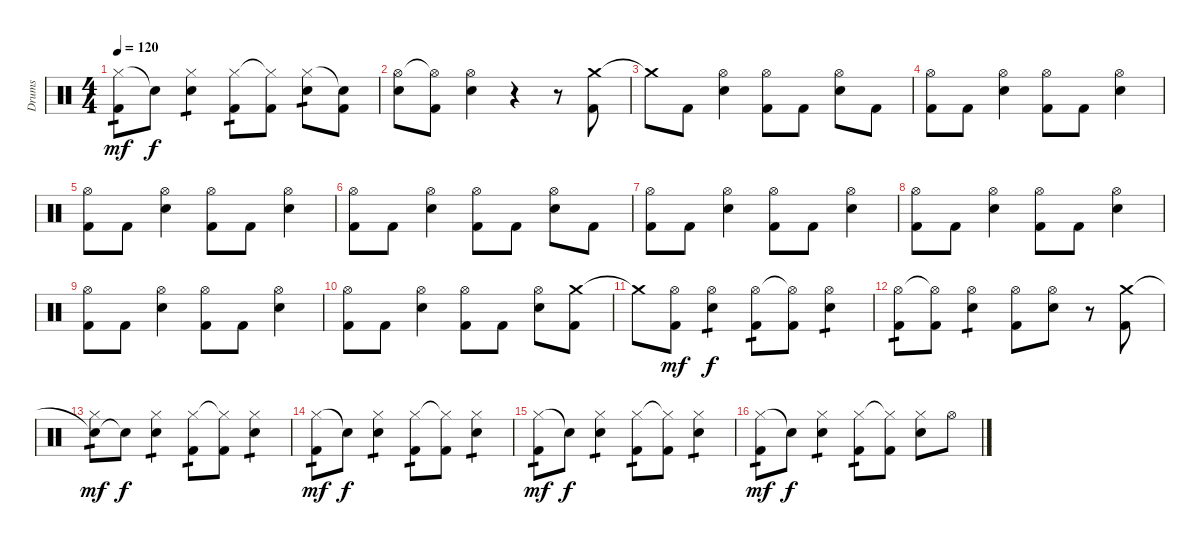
\track ("Drums" "Drums") {instrument percussion}
\staff {score}
\articulation defaults
\ts (4 4)
\tempo 120
\clef neutral
\ks c
("Hi-Hat (closed)" "Kick (hit) 2").8{tp 1 dy mf} "Snare (hit)"{t}.8{dy f} ("Hi-Hat (closed)" "Electric Snare (hit)").4{tp 1} ("Hi-Hat (closed)" "Kick (hit) 2").8{tp 1} ("Hi-Hat (closed)"{t} "Kick (hit) 2").8 ("Hi-Hat (closed)" "Electric Snare (hit)").8{tp 1} ("Snare (hit)"{t} "Kick (hit) 2").8 |
("Hi-Hat (open)" "Electric Snare (hit)").8 ("Hi-Hat (open)"{t} "Kick (hit) 2").8 ("Hi-Hat (open)" "Electric Snare (hit)").4 r.4 r.8 ("Crash medium (hit)" "Kick (hit) 2").8 |
"Crash medium (hit)"{t}.8 "Kick (hit) 2".8 ("Hi-Hat (open)" "Electric Snare (hit)").4 ("Hi-Hat (open)" "Kick (hit) 2").8 "Kick (hit) 2".8 ("Hi-Hat (open)" "Electric Snare (hit)").8 "Kick (hit) 2".8 |
("Hi-Hat (open)" "Kick (hit) 2").8 "Kick (hit) 2".8 ("Hi-Hat (open)" "Electric Snare (hit)").4 ("Hi-Hat (open)" "Kick (hit) 2").8 "Kick (hit) 2".8 ("Hi-Hat (open)" "Electric Snare (hit)").4 |
("Hi-Hat (open)" "Kick (hit) 2").8 "Kick (hit) 2".8 ("Hi-Hat (open)" "Electric Snare (hit)").4 ("Hi-Hat (open)" "Kick (hit) 2").8 "Kick (hit) 2".8 ("Hi-Hat (open)" "Electric Snare (hit)").4 |
("Hi-Hat (open)" "Kick (hit) 2").8 "Kick (hit) 2".8 ("Hi-Hat (open)" "Electric Snare (hit)").4 ("Hi-Hat (open)" "Kick (hit) 2").8 "Kick (hit) 2".8 ("Hi-Hat (open)" "Electric Snare (hit)").8 "Kick (hit) 2".8 |
("Hi-Hat (open)" "Kick (hit) 2").8 "Kick (hit) 2".8 ("Hi-Hat (open)" "Electric Snare (hit)").4 ("Hi-Hat (open)" "Kick (hit) 2").8 "Kick (hit) 2".8 ("Hi-Hat (open)" "Electric Snare (hit)").4 |
("Hi-Hat (open)" "Kick (hit) 2").8 "Kick (hit) 2".8 ("Hi-Hat (open)" "Electric Snare (hit)").4 ("Hi-Hat (open)" "Kick (hit) 2").8 "Kick (hit) 2".8 ("Hi-Hat (open)" "Electric Snare (hit)").4 |
("Hi-Hat (open)" "Kick (hit) 2").8 "Kick (hit) 2".8 ("Hi-Hat (open)" "Electric Snare (hit)").4 ("Hi-Hat (open)" "Kick (hit) 2").8 "Kick (hit) 2".8 ("Hi-Hat (open)" "Electric Snare (hit)").4 |
("Hi-Hat (open)" "Kick (hit) 2").8 "Kick (hit) 2".8 ("Hi-Hat (open)" "Electric Snare (hit)").4 ("Hi-Hat (open)" "Kick (hit) 2").8 "Kick (hit) 2".8 ("Hi-Hat (open)" "Electric Snare (hit)").8 ("Crash medium (hit)" "Kick (hit) 2").8 |
"Crash medium (hit)"{t}.8 ("Hi-Hat (open)" "Kick (hit) 2").8{dy mf} ("Hi-Hat (open)" "Electric Snare (hit)").4{tp 1 dy f} ("Hi-Hat (open)" "Kick (hit) 2").8{tp 1} ("Hi-Hat (open)"{t} "Kick (hit) 2").8 ("Hi-Hat (open)" "Electric Snare (hit)").4{tp 1} |
("Hi-Hat (open)" "Kick (hit) 2").8{tp 1} ("Hi-Hat (open)"{t} "Kick (hit) 2").8 ("Hi-Hat (open)" "Electric Snare (hit)").4{tp 1} ("Hi-Hat (open)" "Kick (hit) 2").8 ("Hi-Hat (open)" "Electric Snare (hit)").8 r.8 ("Crash medium (hit)" "Kick (hit) 2").8 |
("Snare (hit)"{t} "Hi-Hat (closed)").8{tp 1 dy mf} "Snare (hit)"{t}.8{dy f} ("Hi-Hat (closed)" "Electric Snare (hit)").4{tp 1} ("Hi-Hat (closed)" "Kick (hit) 2").8{tp 1} ("Hi-Hat (closed)"{t} "Kick (hit) 2").8 ("Hi-Hat (closed)" "Electric Snare (hit)").4{tp 1} |
("Hi-Hat (closed)" "Kick (hit) 2").8{tp 1 dy mf} "Snare (hit)"{t}.8{dy f} ("Hi-Hat (closed)" "Electric Snare (hit)").4{tp 1} ("Hi-Hat (closed)" "Kick (hit) 2").8{tp 1} ("Hi-Hat (closed)"{t} "Kick (hit) 2").8 ("Hi-Hat (closed)" "Electric Snare (hit)").4{tp 1} |
("Hi-Hat (closed)" "Kick (hit) 2").8{tp 1 dy mf} "Snare (hit)"{t}.8{dy f} ("Hi-Hat (closed)" "Electric Snare (hit)").4{tp 1} ("Hi-Hat (closed)" "Kick (hit) 2").8{tp 1} ("Hi-Hat (closed)"{t} "Kick (hit) 2").8 ("Hi-Hat (closed)" "Electric Snare (hit)").4{tp 1} |
("Hi-Hat (closed)" "Kick (hit) 2").8{tp 1 dy mf} "Snare (hit)"{t}.8{dy f} ("Hi-Hat (closed)" "Electric Snare (hit)").4{tp 1} ("Hi-Hat (closed)" "Kick (hit) 2").8{tp 1} ("Hi-Hat (closed)"{t} "Kick (hit) 2").8 ("Hi-Hat (closed)" "Electric Snare (hit)").8 "Hi-Hat (open)".8
